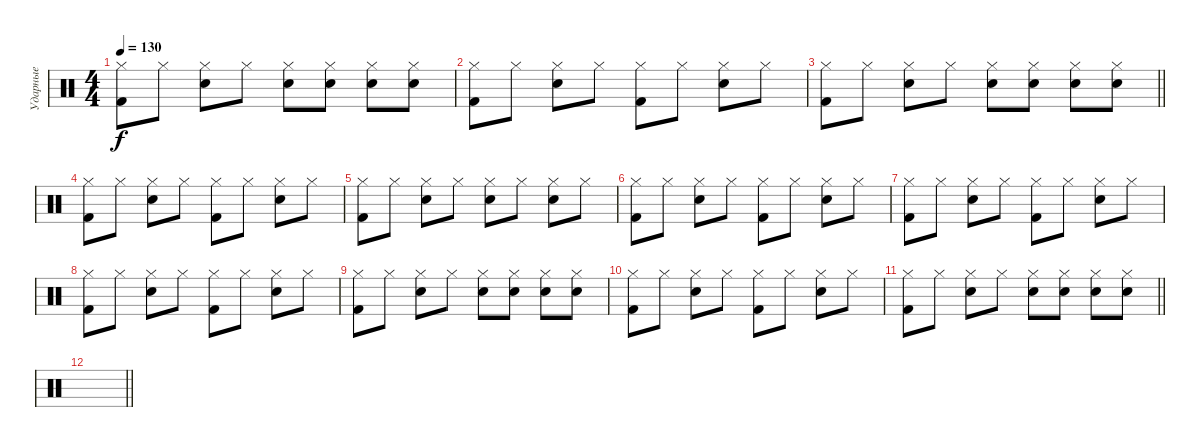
\track ("Ударные" "Ударные") {instrument percussion}
\staff {score}
\articulation defaults
\ts (4 4)
\tempo 130
\clef neutral
\ks c
("Hi-Hat (closed)" "Kick (hit) 2").8{dy f} "Hi-Hat (closed)".8 ("Hi-Hat (closed)" "Snare (hit) 2").8 "Hi-Hat (closed)".8 ("Hi-Hat (closed)" "Snare (hit) 2").8 ("Hi-Hat (closed)" "Snare (hit) 2").8 ("Hi-Hat (closed)" "Snare (hit) 2").8 ("Hi-Hat (closed)" "Snare (hit) 2").8 |
("Hi-Hat (closed)" "Kick (hit) 2").8 "Hi-Hat (closed)".8 ("Hi-Hat (closed)" "Snare (hit) 2").8 "Hi-Hat (closed)".8 ("Hi-Hat (closed)" "Kick (hit) 2").8 "Hi-Hat (closed)".8 ("Hi-Hat (closed)" "Snare (hit) 2").8 "Hi-Hat (closed)".8 |
\barLineRight lightlight
("Hi-Hat (closed)" "Kick (hit) 2").8 "Hi-Hat (closed)".8 ("Hi-Hat (closed)" "Snare (hit) 2").8 "Hi-Hat (closed)".8 ("Hi-Hat (closed)" "Snare (hit) 2").8 ("Hi-Hat (closed)" "Snare (hit) 2").8 ("Hi-Hat (closed)" "Snare (hit) 2").8 ("Hi-Hat (closed)" "Snare (hit) 2").8 |
("Hi-Hat (closed)" "Kick (hit) 2").8 "Hi-Hat (closed)".8 ("Hi-Hat (closed)" "Snare (hit) 2").8 "Hi-Hat (closed)".8 ("Hi-Hat (closed)" "Kick (hit) 2").8 "Hi-Hat (closed)".8 ("Hi-Hat (closed)" "Snare (hit) 2").8 "Hi-Hat (closed)".8 |
("Hi-Hat (closed)" "Kick (hit) 2").8 "Hi-Hat (closed)".8 ("Hi-Hat (closed)" "Snare (hit) 2").8 "Hi-Hat (closed)".8 ("Hi-Hat (closed)" "Snare (hit) 2").8 "Hi-Hat (closed)".8 ("Hi-Hat (closed)" "Snare (hit) 2").8 "Hi-Hat (closed)".8 |
("Hi-Hat (closed)" "Kick (hit) 2").8 "Hi-Hat (closed)".8 ("Hi-Hat (closed)" "Snare (hit) 2").8 "Hi-Hat (closed)".8 ("Hi-Hat (closed)" "Kick (hit) 2").8 "Hi-Hat (closed)".8 ("Hi-Hat (closed)" "Snare (hit) 2").8 "Hi-Hat (closed)".8 |
("Hi-Hat (closed)" "Kick (hit) 2").8 "Hi-Hat (closed)".8 ("Hi-Hat (closed)" "Snare (hit) 2").8 "Hi-Hat (closed)".8 ("Hi-Hat (closed)" "Kick (hit) 2").8 "Hi-Hat (closed)".8 ("Hi-Hat (closed)" "Snare (hit) 2").8 "Hi-Hat (closed)".8 |
("Hi-Hat (closed)" "Kick (hit) 2").8 "Hi-Hat (closed)".8 ("Hi-Hat (closed)" "Snare (hit) 2").8 "Hi-Hat (closed)".8 ("Hi-Hat (closed)" "Kick (hit) 2").8 "Hi-Hat (closed)".8 ("Hi-Hat (closed)" "Snare (hit) 2").8 "Hi-Hat (closed)".8 |
("Hi-Hat (closed)" "Kick (hit) 2").8 "Hi-Hat (closed)".8 ("Hi-Hat (closed)" "Snare (hit) 2").8 "Hi-Hat (closed)".8 ("Hi-Hat (closed)" "Snare (hit) 2").8 ("Hi-Hat (closed)" "Snare (hit) 2").8 ("Hi-Hat (closed)" "Snare (hit) 2").8 ("Hi-Hat (closed)" "Snare (hit) 2").8 |
("Hi-Hat (closed)" "Kick (hit) 2").8 "Hi-Hat (closed)".8 ("Hi-Hat (closed)" "Snare (hit) 2").8 "Hi-Hat (closed)".8 ("Hi-Hat (closed)" "Kick (hit) 2").8 "Hi-Hat (closed)".8 ("Hi-Hat (closed)" "Snare (hit) 2").8 "Hi-Hat (closed)".8 |
\barLineRight lightlight
("Hi-Hat (closed)" "Kick (hit) 2").8 "Hi-Hat (closed)".8 ("Hi-Hat (closed)" "Snare (hit) 2").8 "Hi-Hat (closed)".8 ("Hi-Hat (closed)" "Snare (hit) 2").8 ("Hi-Hat (closed)" "Snare (hit) 2").8 ("Hi-Hat (closed)" "Snare (hit) 2").8 ("Hi-Hat (closed)" "Snare (hit) 2").8 |
\barLineRight lightlight
